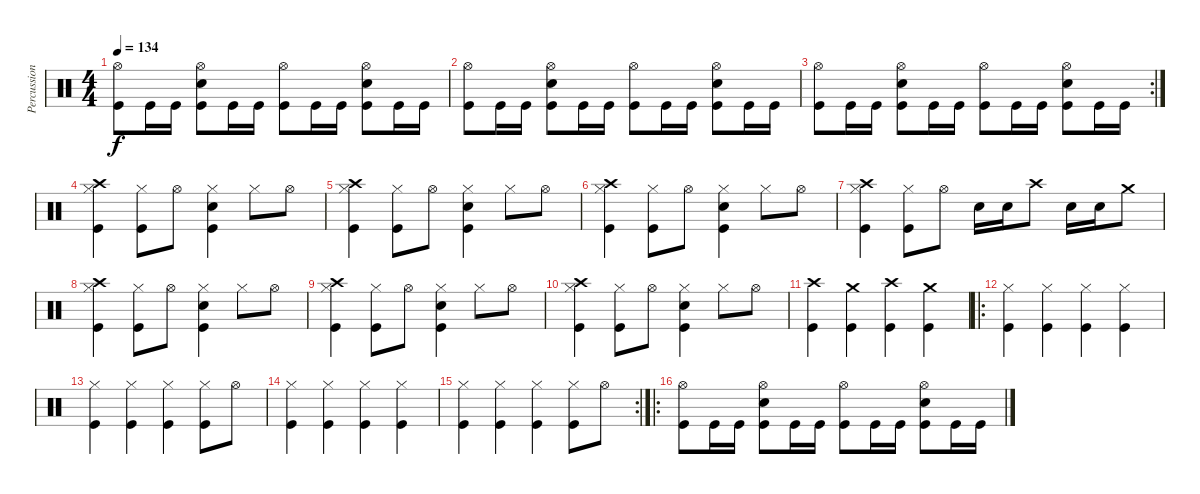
\track ("Percussion" "Percussion") {instrument percussion}
\staff {score}
\articulation defaults
\ts (4 4)
\tempo 134
\clef neutral
\ks c
("Hi-Hat (open)" "Kick (hit)").8{dy f} "Kick (hit)".16 "Kick (hit)".16 ("Hi-Hat (open)" "Kick (hit)" "Snare (hit) 2").8 "Kick (hit)".16 "Kick (hit)".16 ("Hi-Hat (open)" "Kick (hit)").8 "Kick (hit)".16 "Kick (hit)".16 ("Hi-Hat (open)" "Kick (hit)" "Snare (hit) 2").8 "Kick (hit)".16 "Kick (hit)".16 |
("Hi-Hat (open)" "Kick (hit)").8 "Kick (hit)".16 "Kick (hit)".16 ("Hi-Hat (open)" "Kick (hit)" "Snare (hit) 2").8 "Kick (hit)".16 "Kick (hit)".16 ("Hi-Hat (open)" "Kick (hit)").8 "Kick (hit)".16 "Kick (hit)".16 ("Hi-Hat (open)" "Kick (hit)" "Snare (hit) 2").8 "Kick (hit)".16 "Kick (hit)".16 |
\rc 2
("Hi-Hat (open)" "Kick (hit)").8 "Kick (hit)".16 "Kick (hit)".16 ("Hi-Hat (open)" "Kick (hit)" "Snare (hit) 2").8 "Kick (hit)".16 "Kick (hit)".16 ("Hi-Hat (open)" "Kick (hit)").8 "Kick (hit)".16 "Kick (hit)".16 ("Hi-Hat (open)" "Kick (hit)" "Snare (hit) 2").8 "Kick (hit)".16 "Kick (hit)".16 |
("Hi-Hat (closed)" "Kick (hit)" "Crash high (hit)").4 ("Hi-Hat (closed)" "Kick (hit)").8 "Hi-Hat (open)".8 ("Hi-Hat (closed)" "Kick (hit)" "Snare (hit) 2").4 "Hi-Hat (closed)".8 "Hi-Hat (open)".8 |
("Hi-Hat (closed)" "Kick (hit)" "Crash high (hit)").4 ("Hi-Hat (closed)" "Kick (hit)").8 "Hi-Hat (open)".8 ("Hi-Hat (closed)" "Kick (hit)" "Snare (hit) 2").4 "Hi-Hat (closed)".8 "Hi-Hat (open)".8 |
("Hi-Hat (closed)" "Kick (hit)" "Crash high (hit)").4 ("Hi-Hat (closed)" "Kick (hit)").8 "Hi-Hat (open)".8 ("Hi-Hat (closed)" "Kick (hit)" "Snare (hit) 2").4 "Hi-Hat (closed)".8 "Hi-Hat (open)".8 |
("Hi-Hat (closed)" "Kick (hit)" "Crash high (hit)").4 ("Hi-Hat (closed)" "Kick (hit)").8 "Hi-Hat (open)".8 "Snare (hit) 2".16 "Snare (hit) 2".16 "Crash high (hit)".8 "Snare (hit) 2".16 "Snare (hit) 2".16 "Crash medium (hit)".8 |
("Hi-Hat (closed)" "Kick (hit)" "Crash high (hit)").4 ("Hi-Hat (closed)" "Kick (hit)").8 "Hi-Hat (open)".8 ("Hi-Hat (closed)" "Kick (hit)" "Snare (hit) 2").4 "Hi-Hat (closed)".8 "Hi-Hat (open)".8 |
("Hi-Hat (closed)" "Kick (hit)" "Crash high (hit)").4 ("Hi-Hat (closed)" "Kick (hit)").8 "Hi-Hat (open)".8 ("Hi-Hat (closed)" "Kick (hit)" "Snare (hit) 2").4 "Hi-Hat (closed)".8 "Hi-Hat (open)".8 |
("Hi-Hat (closed)" "Kick (hit)" "Crash high (hit)").4 ("Hi-Hat (closed)" "Kick (hit)").8 "Hi-Hat (open)".8 ("Hi-Hat (closed)" "Kick (hit)" "Snare (hit) 2").4 "Hi-Hat (closed)".8 "Hi-Hat (open)".8 |
("Kick (hit)" "Crash high (hit)").4 ("Kick (hit)" "Crash medium (hit)").4 ("Kick (hit)" "Crash high (hit)").4 ("Kick (hit)" "Crash medium (hit)").4 |
\ro
("Kick (hit)" "Hi-Hat (closed)").4 ("Kick (hit)" "Hi-Hat (closed)").4 ("Kick (hit)" "Hi-Hat (closed)").4 ("Kick (hit)" "Hi-Hat (closed)").4 |
("Kick (hit)" "Hi-Hat (closed)").4 ("Kick (hit)" "Hi-Hat (closed)").4 ("Kick (hit)" "Hi-Hat (closed)").4 ("Kick (hit)" "Hi-Hat (closed)").8 "Hi-Hat (open)".8 |
("Kick (hit)" "Hi-Hat (closed)").4 ("Kick (hit)" "Hi-Hat (closed)").4 ("Kick (hit)" "Hi-Hat (closed)").4 ("Kick (hit)" "Hi-Hat (closed)").4 |
\rc 2
("Kick (hit)" "Hi-Hat (closed)").4 ("Kick (hit)" "Hi-Hat (closed)").4 ("Kick (hit)" "Hi-Hat (closed)").4 ("Kick (hit)" "Hi-Hat (closed)").8 "Hi-Hat (open)".8 |
\ro
("Hi-Hat (open)" "Kick (hit)").8 "Kick (hit)".16 "Kick (hit)".16 ("Hi-Hat (open)" "Kick (hit)" "Snare (hit) 2").8 "Kick (hit)".16 "Kick (hit)".16 ("Hi-Hat (open)" "Kick (hit)").8 "Kick (hit)".16 "Kick (hit)".16 ("Hi-Hat (open)" "Kick (hit)" "Snare (hit) 2").8 "Kick (hit)".16 "Kick (hit)".16
